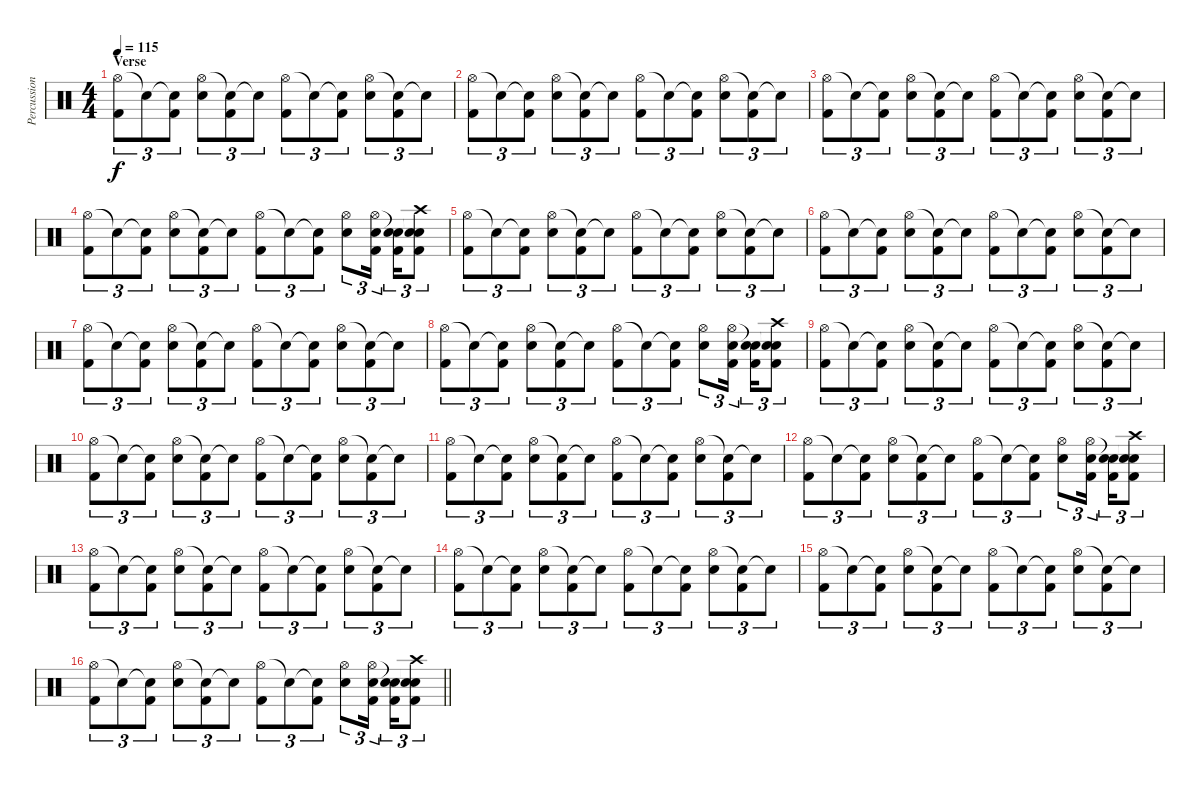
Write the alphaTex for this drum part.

\track ("Percussion" "Percussion") {instrument percussion}
\staff {score}
\articulation defaults
\ts (4 4)
\section ("" "Verse")
\tempo 115
\clef neutral
\ks c
("Hi-Hat (open)" "Kick (hit) 2").8{tu (3 2) dy f} "Snare (hit)"{t}.8{tu (3 2)} ("Snare (hit)"{t} "Kick (hit) 2").8{tu (3 2)} ("Hi-Hat (open)" "Electric Snare (hit)").8{tu (3 2)} ("Snare (hit)"{t} "Kick (hit) 2").8{tu (3 2)} "Snare (hit)"{t}.8{tu (3 2)} ("Hi-Hat (open)" "Kick (hit) 2").8{tu (3 2)} "Snare (hit)"{t}.8{tu (3 2)} ("Snare (hit)"{t} "Kick (hit) 2").8{tu (3 2)} ("Hi-Hat (open)" "Electric Snare (hit)").8{tu (3 2)} ("Snare (hit)"{t} "Kick (hit) 2").8{tu (3 2)} "Snare (hit)"{t}.8{tu (3 2)} |
("Hi-Hat (open)" "Kick (hit) 2").8{tu (3 2)} "Snare (hit)"{t}.8{tu (3 2)} ("Snare (hit)"{t} "Kick (hit) 2").8{tu (3 2)} ("Hi-Hat (open)" "Electric Snare (hit)").8{tu (3 2)} ("Snare (hit)"{t} "Kick (hit) 2").8{tu (3 2)} "Snare (hit)"{t}.8{tu (3 2)} ("Hi-Hat (open)" "Kick (hit) 2").8{tu (3 2)} "Snare (hit)"{t}.8{tu (3 2)} ("Snare (hit)"{t} "Kick (hit) 2").8{tu (3 2)} ("Hi-Hat (open)" "Electric Snare (hit)").8{tu (3 2)} ("Snare (hit)"{t} "Kick (hit) 2").8{tu (3 2)} "Snare (hit)"{t}.8{tu (3 2)} |
("Hi-Hat (open)" "Kick (hit) 2").8{tu (3 2)} "Snare (hit)"{t}.8{tu (3 2)} ("Snare (hit)"{t} "Kick (hit) 2").8{tu (3 2)} ("Hi-Hat (open)" "Electric Snare (hit)").8{tu (3 2)} ("Snare (hit)"{t} "Kick (hit) 2").8{tu (3 2)} "Snare (hit)"{t}.8{tu (3 2)} ("Hi-Hat (open)" "Kick (hit) 2").8{tu (3 2)} "Snare (hit)"{t}.8{tu (3 2)} ("Snare (hit)"{t} "Kick (hit) 2").8{tu (3 2)} ("Hi-Hat (open)" "Electric Snare (hit)").8{tu (3 2)} ("Snare (hit)"{t} "Kick (hit) 2").8{tu (3 2)} "Snare (hit)"{t}.8{tu (3 2)} |
("Hi-Hat (open)" "Kick (hit) 2").8{tu (3 2)} "Snare (hit)"{t}.8{tu (3 2)} ("Snare (hit)"{t} "Kick (hit) 2").8{tu (3 2)} ("Hi-Hat (open)" "Electric Snare (hit)").8{tu (3 2)} ("Snare (hit)"{t} "Kick (hit) 2").8{tu (3 2)} "Snare (hit)"{t}.8{tu (3 2)} ("Hi-Hat (open)" "Kick (hit) 2").8{tu (3 2)} "Snare (hit)"{t}.8{tu (3 2)} ("Snare (hit)"{t} "Kick (hit) 2").8{tu (3 2)} ("Hi-Hat (open)" "Electric Snare (hit)").8{tu (3 2)} ("Hi-Hat (open)" "Electric Snare (hit)" "Kick (hit) 2").16{tu (3 2) beam splitsecondary} ("Snare (hit)"{t} "Electric Snare (hit)" "Kick (hit) 2").16{tu (3 2)} ("Snare (hit)"{t} "Crash high (hit)" "Electric Snare (hit)" "Kick (hit) 2").8{tu (3 2)} |
("Hi-Hat (open)" "Kick (hit) 2").8{tu (3 2)} "Snare (hit)"{t}.8{tu (3 2)} ("Snare (hit)"{t} "Kick (hit) 2").8{tu (3 2)} ("Hi-Hat (open)" "Electric Snare (hit)").8{tu (3 2)} ("Snare (hit)"{t} "Kick (hit) 2").8{tu (3 2)} "Snare (hit)"{t}.8{tu (3 2)} ("Hi-Hat (open)" "Kick (hit) 2").8{tu (3 2)} "Snare (hit)"{t}.8{tu (3 2)} ("Snare (hit)"{t} "Kick (hit) 2").8{tu (3 2)} ("Hi-Hat (open)" "Electric Snare (hit)").8{tu (3 2)} ("Snare (hit)"{t} "Kick (hit) 2").8{tu (3 2)} "Snare (hit)"{t}.8{tu (3 2)} |
("Hi-Hat (open)" "Kick (hit) 2").8{tu (3 2)} "Snare (hit)"{t}.8{tu (3 2)} ("Snare (hit)"{t} "Kick (hit) 2").8{tu (3 2)} ("Hi-Hat (open)" "Electric Snare (hit)").8{tu (3 2)} ("Snare (hit)"{t} "Kick (hit) 2").8{tu (3 2)} "Snare (hit)"{t}.8{tu (3 2)} ("Hi-Hat (open)" "Kick (hit) 2").8{tu (3 2)} "Snare (hit)"{t}.8{tu (3 2)} ("Snare (hit)"{t} "Kick (hit) 2").8{tu (3 2)} ("Hi-Hat (open)" "Electric Snare (hit)").8{tu (3 2)} ("Snare (hit)"{t} "Kick (hit) 2").8{tu (3 2)} "Snare (hit)"{t}.8{tu (3 2)} |
("Hi-Hat (open)" "Kick (hit) 2").8{tu (3 2)} "Snare (hit)"{t}.8{tu (3 2)} ("Snare (hit)"{t} "Kick (hit) 2").8{tu (3 2)} ("Hi-Hat (open)" "Electric Snare (hit)").8{tu (3 2)} ("Snare (hit)"{t} "Kick (hit) 2").8{tu (3 2)} "Snare (hit)"{t}.8{tu (3 2)} ("Hi-Hat (open)" "Kick (hit) 2").8{tu (3 2)} "Snare (hit)"{t}.8{tu (3 2)} ("Snare (hit)"{t} "Kick (hit) 2").8{tu (3 2)} ("Hi-Hat (open)" "Electric Snare (hit)").8{tu (3 2)} ("Snare (hit)"{t} "Kick (hit) 2").8{tu (3 2)} "Snare (hit)"{t}.8{tu (3 2)} |
("Hi-Hat (open)" "Kick (hit) 2").8{tu (3 2)} "Snare (hit)"{t}.8{tu (3 2)} ("Snare (hit)"{t} "Kick (hit) 2").8{tu (3 2)} ("Hi-Hat (open)" "Electric Snare (hit)").8{tu (3 2)} ("Snare (hit)"{t} "Kick (hit) 2").8{tu (3 2)} "Snare (hit)"{t}.8{tu (3 2)} ("Hi-Hat (open)" "Kick (hit) 2").8{tu (3 2)} "Snare (hit)"{t}.8{tu (3 2)} ("Snare (hit)"{t} "Kick (hit) 2").8{tu (3 2)} ("Hi-Hat (open)" "Electric Snare (hit)").8{tu (3 2)} ("Hi-Hat (open)" "Electric Snare (hit)" "Kick (hit) 2").16{tu (3 2) beam splitsecondary} ("Snare (hit)"{t} "Electric Snare (hit)" "Kick (hit) 2").16{tu (3 2)} ("Snare (hit)"{t} "Crash high (hit)" "Electric Snare (hit)" "Kick (hit) 2").8{tu (3 2)} |
("Hi-Hat (open)" "Kick (hit) 2").8{tu (3 2)} "Snare (hit)"{t}.8{tu (3 2)} ("Snare (hit)"{t} "Kick (hit) 2").8{tu (3 2)} ("Hi-Hat (open)" "Electric Snare (hit)").8{tu (3 2)} ("Snare (hit)"{t} "Kick (hit) 2").8{tu (3 2)} "Snare (hit)"{t}.8{tu (3 2)} ("Hi-Hat (open)" "Kick (hit) 2").8{tu (3 2)} "Snare (hit)"{t}.8{tu (3 2)} ("Snare (hit)"{t} "Kick (hit) 2").8{tu (3 2)} ("Hi-Hat (open)" "Electric Snare (hit)").8{tu (3 2)} ("Snare (hit)"{t} "Kick (hit) 2").8{tu (3 2)} "Snare (hit)"{t}.8{tu (3 2)} |
("Hi-Hat (open)" "Kick (hit) 2").8{tu (3 2)} "Snare (hit)"{t}.8{tu (3 2)} ("Snare (hit)"{t} "Kick (hit) 2").8{tu (3 2)} ("Hi-Hat (open)" "Electric Snare (hit)").8{tu (3 2)} ("Snare (hit)"{t} "Kick (hit) 2").8{tu (3 2)} "Snare (hit)"{t}.8{tu (3 2)} ("Hi-Hat (open)" "Kick (hit) 2").8{tu (3 2)} "Snare (hit)"{t}.8{tu (3 2)} ("Snare (hit)"{t} "Kick (hit) 2").8{tu (3 2)} ("Hi-Hat (open)" "Electric Snare (hit)").8{tu (3 2)} ("Snare (hit)"{t} "Kick (hit) 2").8{tu (3 2)} "Snare (hit)"{t}.8{tu (3 2)} |
("Hi-Hat (open)" "Kick (hit) 2").8{tu (3 2)} "Snare (hit)"{t}.8{tu (3 2)} ("Snare (hit)"{t} "Kick (hit) 2").8{tu (3 2)} ("Hi-Hat (open)" "Electric Snare (hit)").8{tu (3 2)} ("Snare (hit)"{t} "Kick (hit) 2").8{tu (3 2)} "Snare (hit)"{t}.8{tu (3 2)} ("Hi-Hat (open)" "Kick (hit) 2").8{tu (3 2)} "Snare (hit)"{t}.8{tu (3 2)} ("Snare (hit)"{t} "Kick (hit) 2").8{tu (3 2)} ("Hi-Hat (open)" "Electric Snare (hit)").8{tu (3 2)} ("Snare (hit)"{t} "Kick (hit) 2").8{tu (3 2)} "Snare (hit)"{t}.8{tu (3 2)} |
("Hi-Hat (open)" "Kick (hit) 2").8{tu (3 2)} "Snare (hit)"{t}.8{tu (3 2)} ("Snare (hit)"{t} "Kick (hit) 2").8{tu (3 2)} ("Hi-Hat (open)" "Electric Snare (hit)").8{tu (3 2)} ("Snare (hit)"{t} "Kick (hit) 2").8{tu (3 2)} "Snare (hit)"{t}.8{tu (3 2)} ("Hi-Hat (open)" "Kick (hit) 2").8{tu (3 2)} "Snare (hit)"{t}.8{tu (3 2)} ("Snare (hit)"{t} "Kick (hit) 2").8{tu (3 2)} ("Hi-Hat (open)" "Electric Snare (hit)").8{tu (3 2)} ("Hi-Hat (open)" "Electric Snare (hit)" "Kick (hit) 2").16{tu (3 2) beam splitsecondary} ("Snare (hit)"{t} "Electric Snare (hit)" "Kick (hit) 2").16{tu (3 2)} ("Snare (hit)"{t} "Crash high (hit)" "Electric Snare (hit)" "Kick (hit) 2").8{tu (3 2)} |
("Hi-Hat (open)" "Kick (hit) 2").8{tu (3 2)} "Snare (hit)"{t}.8{tu (3 2)} ("Snare (hit)"{t} "Kick (hit) 2").8{tu (3 2)} ("Hi-Hat (open)" "Electric Snare (hit)").8{tu (3 2)} ("Snare (hit)"{t} "Kick (hit) 2").8{tu (3 2)} "Snare (hit)"{t}.8{tu (3 2)} ("Hi-Hat (open)" "Kick (hit) 2").8{tu (3 2)} "Snare (hit)"{t}.8{tu (3 2)} ("Snare (hit)"{t} "Kick (hit) 2").8{tu (3 2)} ("Hi-Hat (open)" "Electric Snare (hit)").8{tu (3 2)} ("Snare (hit)"{t} "Kick (hit) 2").8{tu (3 2)} "Snare (hit)"{t}.8{tu (3 2)} |
("Hi-Hat (open)" "Kick (hit) 2").8{tu (3 2)} "Snare (hit)"{t}.8{tu (3 2)} ("Snare (hit)"{t} "Kick (hit) 2").8{tu (3 2)} ("Hi-Hat (open)" "Electric Snare (hit)").8{tu (3 2)} ("Snare (hit)"{t} "Kick (hit) 2").8{tu (3 2)} "Snare (hit)"{t}.8{tu (3 2)} ("Hi-Hat (open)" "Kick (hit) 2").8{tu (3 2)} "Snare (hit)"{t}.8{tu (3 2)} ("Snare (hit)"{t} "Kick (hit) 2").8{tu (3 2)} ("Hi-Hat (open)" "Electric Snare (hit)").8{tu (3 2)} ("Snare (hit)"{t} "Kick (hit) 2").8{tu (3 2)} "Snare (hit)"{t}.8{tu (3 2)} |
("Hi-Hat (open)" "Kick (hit) 2").8{tu (3 2)} "Snare (hit)"{t}.8{tu (3 2)} ("Snare (hit)"{t} "Kick (hit) 2").8{tu (3 2)} ("Hi-Hat (open)" "Electric Snare (hit)").8{tu (3 2)} ("Snare (hit)"{t} "Kick (hit) 2").8{tu (3 2)} "Snare (hit)"{t}.8{tu (3 2)} ("Hi-Hat (open)" "Kick (hit) 2").8{tu (3 2)} "Snare (hit)"{t}.8{tu (3 2)} ("Snare (hit)"{t} "Kick (hit) 2").8{tu (3 2)} ("Hi-Hat (open)" "Electric Snare (hit)").8{tu (3 2)} ("Snare (hit)"{t} "Kick (hit) 2").8{tu (3 2)} "Snare (hit)"{t}.8{tu (3 2)} |
\barLineRight lightlight
("Hi-Hat (open)" "Kick (hit) 2").8{tu (3 2)} "Snare (hit)"{t}.8{tu (3 2)} ("Snare (hit)"{t} "Kick (hit) 2").8{tu (3 2)} ("Hi-Hat (open)" "Electric Snare (hit)").8{tu (3 2)} ("Snare (hit)"{t} "Kick (hit) 2").8{tu (3 2)} "Snare (hit)"{t}.8{tu (3 2)} ("Hi-Hat (open)" "Kick (hit) 2").8{tu (3 2)} "Snare (hit)"{t}.8{tu (3 2)} ("Snare (hit)"{t} "Kick (hit) 2").8{tu (3 2)} ("Hi-Hat (open)" "Electric Snare (hit)").8{tu (3 2)} ("Hi-Hat (open)" "Electric Snare (hit)" "Kick (hit) 2").16{tu (3 2) beam splitsecondary} ("Snare (hit)"{t} "Electric Snare (hit)" "Kick (hit) 2").16{tu (3 2)} ("Snare (hit)"{t} "Crash high (hit)" "Electric Snare (hit)" "Kick (hit) 2").8{tu (3 2)}
